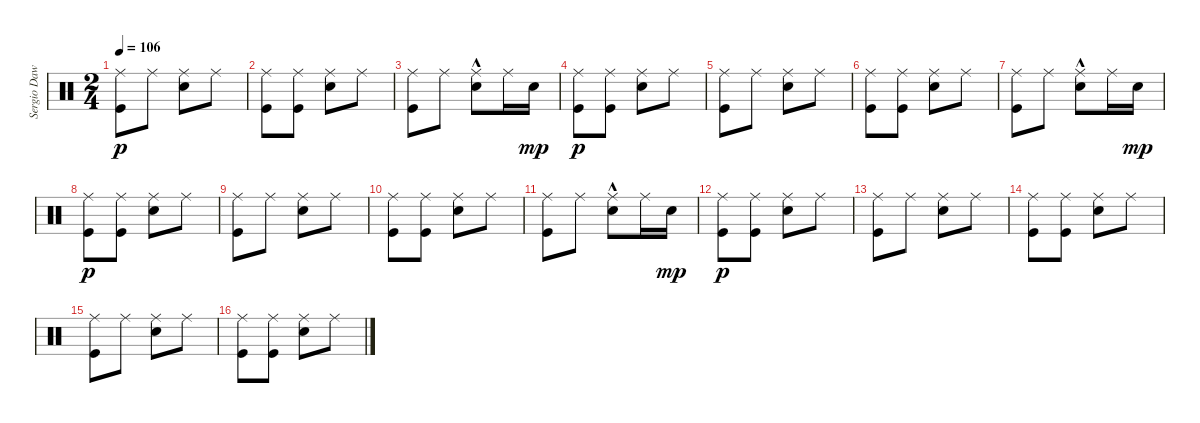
\track ("Sergio Dawi" "Sergio Daw") {instrument percussion}
\staff {score}
\articulation defaults
\ts (2 4)
\tempo 106
\clef neutral
\ks c
("Kick (hit)" "Ride (middle)").8{dy p} "Ride (middle)".8 ("Electric Snare (hit)" "Ride (middle)").8 "Ride (middle)".8 |
("Kick (hit)" "Ride (middle)").8 ("Kick (hit)" "Ride (middle)").8 ("Electric Snare (hit)" "Ride (middle)").8 "Ride (middle)".8 |
("Kick (hit)" "Ride (middle)").8 "Ride (middle)".8 ("Electric Snare (hit)"{hac} "Ride (middle)").8 "Ride (middle)".16 "Electric Snare (hit)".16{dy mp} |
("Kick (hit)" "Ride (middle)").8{dy p} ("Kick (hit)" "Ride (middle)").8 ("Electric Snare (hit)" "Ride (middle)").8 "Ride (middle)".8 |
("Kick (hit)" "Ride (middle)").8 "Ride (middle)".8 ("Electric Snare (hit)" "Ride (middle)").8 "Ride (middle)".8 |
("Kick (hit)" "Ride (middle)").8 ("Kick (hit)" "Ride (middle)").8 ("Electric Snare (hit)" "Ride (middle)").8 "Ride (middle)".8 |
("Kick (hit)" "Ride (middle)").8 "Ride (middle)".8 ("Electric Snare (hit)"{hac} "Ride (middle)").8 "Ride (middle)".16 "Electric Snare (hit)".16{dy mp} |
("Kick (hit)" "Ride (middle)").8{dy p} ("Kick (hit)" "Ride (middle)").8 ("Electric Snare (hit)" "Ride (middle)").8 "Ride (middle)".8 |
("Kick (hit)" "Ride (middle)").8 "Ride (middle)".8 ("Electric Snare (hit)" "Ride (middle)").8 "Ride (middle)".8 |
("Kick (hit)" "Ride (middle)").8 ("Kick (hit)" "Ride (middle)").8 ("Electric Snare (hit)" "Ride (middle)").8 "Ride (middle)".8 |
("Kick (hit)" "Ride (middle)").8 "Ride (middle)".8 ("Electric Snare (hit)"{hac} "Ride (middle)").8 "Ride (middle)".16 "Electric Snare (hit)".16{dy mp} |
("Kick (hit)" "Ride (middle)").8{dy p} ("Kick (hit)" "Ride (middle)").8 ("Electric Snare (hit)" "Ride (middle)").8 "Ride (middle)".8 |
("Kick (hit)" "Ride (middle)").8 "Ride (middle)".8 ("Electric Snare (hit)" "Ride (middle)").8 "Ride (middle)".8 |
("Kick (hit)" "Ride (middle)").8 ("Kick (hit)" "Ride (middle)").8 ("Electric Snare (hit)" "Ride (middle)").8 "Ride (middle)".8 |
("Kick (hit)" "Ride (middle)").8 "Ride (middle)".8 ("Electric Snare (hit)" "Ride (middle)").8 "Ride (middle)".8 |
("Kick (hit)" "Ride (middle)").8 ("Kick (hit)" "Ride (middle)").8 ("Electric Snare (hit)" "Ride (middle)").8 "Ride (middle)".8
